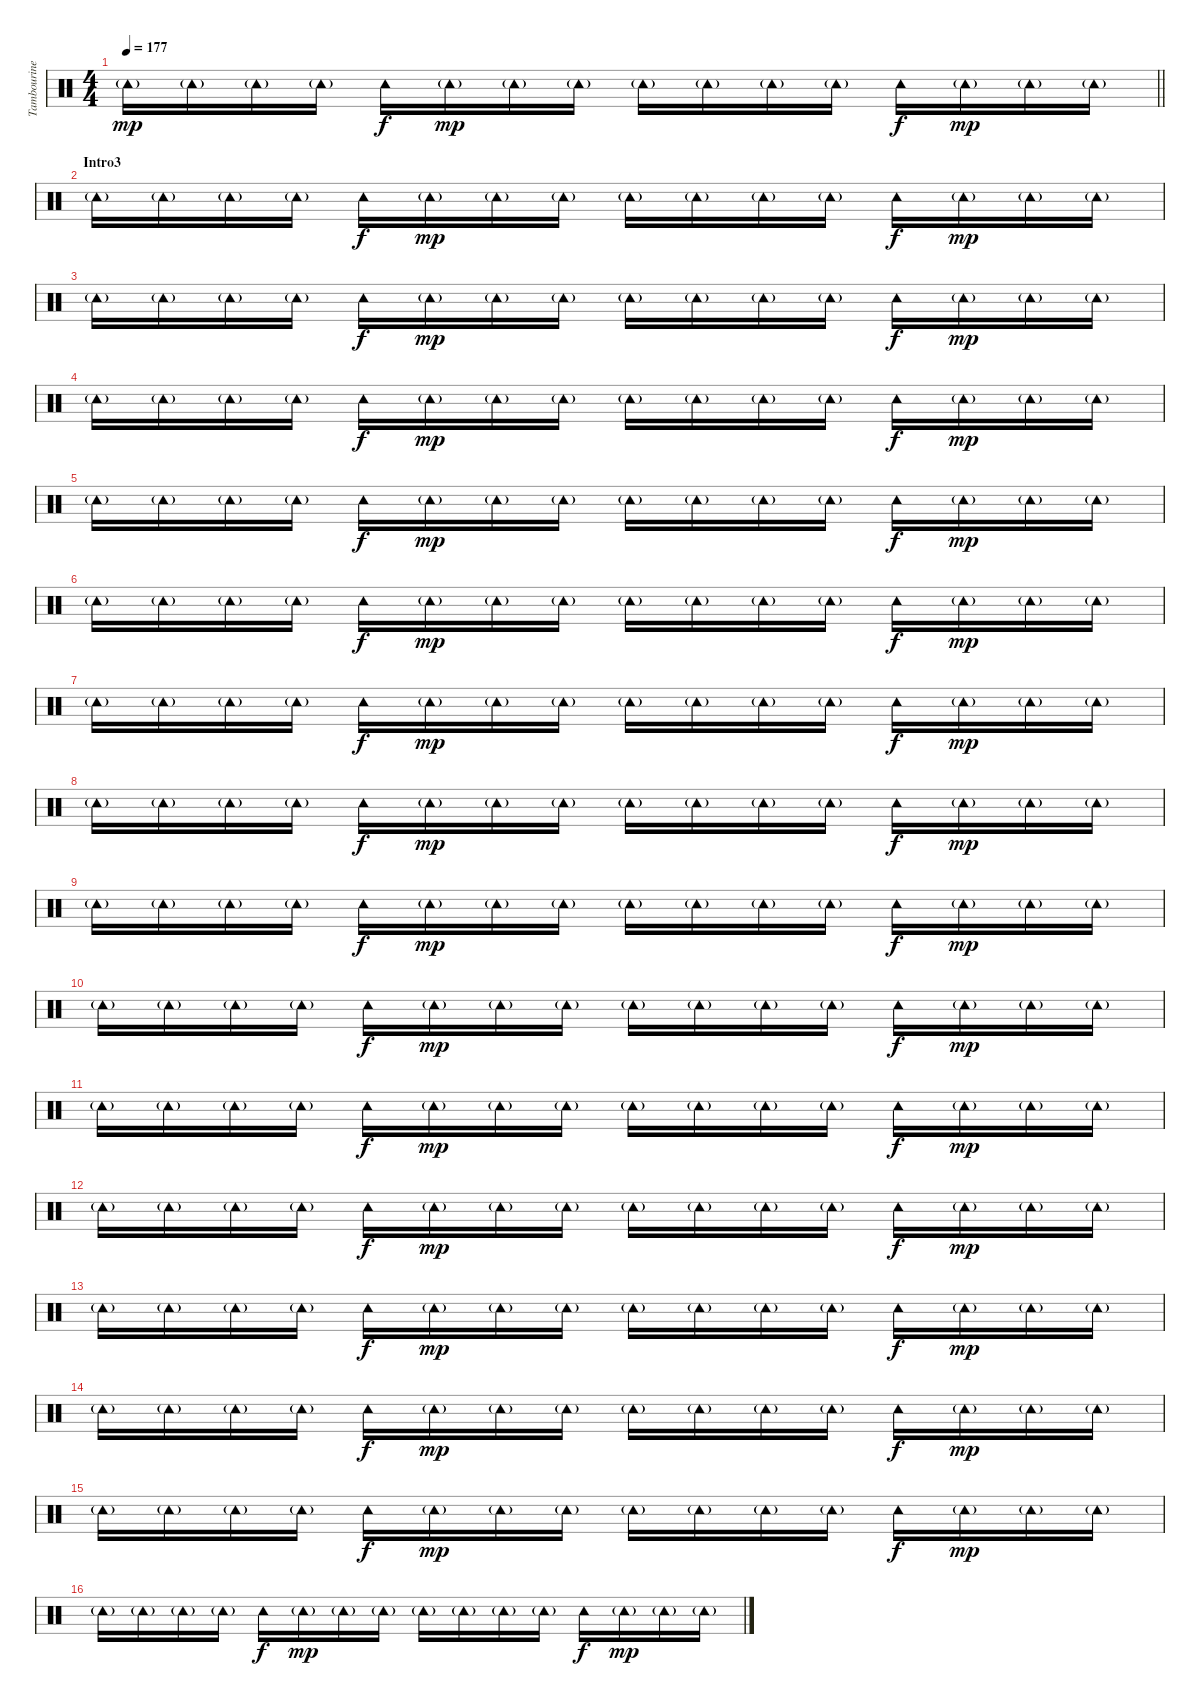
\track ("Tambourine" "Tambourine") {instrument percussion}
\staff {score}
\articulation defaults
\ts (4 4)
\tempo 177
\clef neutral
\barLineRight lightlight
\ks c "Tambourine (hit)"{g}.16{dy mp} "Tambourine (hit)"{g}.16 "Tambourine (hit)"{g}.16 "Tambourine (hit)"{g}.16 "Tambourine (hit)".16{dy f} "Tambourine (hit)"{g}.16{dy mp} "Tambourine (hit)"{g}.16 "Tambourine (hit)"{g}.16 "Tambourine (hit)"{g}.16 "Tambourine (hit)"{g}.16 "Tambourine (hit)"{g}.16 "Tambourine (hit)"{g}.16 "Tambourine (hit)".16{dy f} "Tambourine (hit)"{g}.16{dy mp} "Tambourine (hit)"{g}.16 "Tambourine (hit)"{g}.16
|
\section ("" "Intro3")
"Tambourine (hit)"{g}.16 "Tambourine (hit)"{g}.16 "Tambourine (hit)"{g}.16 "Tambourine (hit)"{g}.16 "Tambourine (hit)".16{dy f} "Tambourine (hit)"{g}.16{dy mp} "Tambourine (hit)"{g}.16 "Tambourine (hit)"{g}.16 "Tambourine (hit)"{g}.16 "Tambourine (hit)"{g}.16 "Tambourine (hit)"{g}.16 "Tambourine (hit)"{g}.16 "Tambourine (hit)".16{dy f} "Tambourine (hit)"{g}.16{dy mp} "Tambourine (hit)"{g}.16 "Tambourine (hit)"{g}.16 |
"Tambourine (hit)"{g}.16 "Tambourine (hit)"{g}.16 "Tambourine (hit)"{g}.16 "Tambourine (hit)"{g}.16 "Tambourine (hit)".16{dy f} "Tambourine (hit)"{g}.16{dy mp} "Tambourine (hit)"{g}.16 "Tambourine (hit)"{g}.16 "Tambourine (hit)"{g}.16 "Tambourine (hit)"{g}.16 "Tambourine (hit)"{g}.16 "Tambourine (hit)"{g}.16 "Tambourine (hit)".16{dy f} "Tambourine (hit)"{g}.16{dy mp} "Tambourine (hit)"{g}.16 "Tambourine (hit)"{g}.16 |
"Tambourine (hit)"{g}.16 "Tambourine (hit)"{g}.16 "Tambourine (hit)"{g}.16 "Tambourine (hit)"{g}.16 "Tambourine (hit)".16{dy f} "Tambourine (hit)"{g}.16{dy mp} "Tambourine (hit)"{g}.16 "Tambourine (hit)"{g}.16 "Tambourine (hit)"{g}.16 "Tambourine (hit)"{g}.16 "Tambourine (hit)"{g}.16 "Tambourine (hit)"{g}.16 "Tambourine (hit)".16{dy f} "Tambourine (hit)"{g}.16{dy mp} "Tambourine (hit)"{g}.16 "Tambourine (hit)"{g}.16 |
"Tambourine (hit)"{g}.16 "Tambourine (hit)"{g}.16 "Tambourine (hit)"{g}.16 "Tambourine (hit)"{g}.16 "Tambourine (hit)".16{dy f} "Tambourine (hit)"{g}.16{dy mp} "Tambourine (hit)"{g}.16 "Tambourine (hit)"{g}.16 "Tambourine (hit)"{g}.16 "Tambourine (hit)"{g}.16 "Tambourine (hit)"{g}.16 "Tambourine (hit)"{g}.16 "Tambourine (hit)".16{dy f} "Tambourine (hit)"{g}.16{dy mp} "Tambourine (hit)"{g}.16 "Tambourine (hit)"{g}.16 |
"Tambourine (hit)"{g}.16 "Tambourine (hit)"{g}.16 "Tambourine (hit)"{g}.16 "Tambourine (hit)"{g}.16 "Tambourine (hit)".16{dy f} "Tambourine (hit)"{g}.16{dy mp} "Tambourine (hit)"{g}.16 "Tambourine (hit)"{g}.16 "Tambourine (hit)"{g}.16 "Tambourine (hit)"{g}.16 "Tambourine (hit)"{g}.16 "Tambourine (hit)"{g}.16 "Tambourine (hit)".16{dy f} "Tambourine (hit)"{g}.16{dy mp} "Tambourine (hit)"{g}.16 "Tambourine (hit)"{g}.16 |
"Tambourine (hit)"{g}.16 "Tambourine (hit)"{g}.16 "Tambourine (hit)"{g}.16 "Tambourine (hit)"{g}.16 "Tambourine (hit)".16{dy f} "Tambourine (hit)"{g}.16{dy mp} "Tambourine (hit)"{g}.16 "Tambourine (hit)"{g}.16 "Tambourine (hit)"{g}.16 "Tambourine (hit)"{g}.16 "Tambourine (hit)"{g}.16 "Tambourine (hit)"{g}.16 "Tambourine (hit)".16{dy f} "Tambourine (hit)"{g}.16{dy mp} "Tambourine (hit)"{g}.16 "Tambourine (hit)"{g}.16 |
"Tambourine (hit)"{g}.16 "Tambourine (hit)"{g}.16 "Tambourine (hit)"{g}.16 "Tambourine (hit)"{g}.16 "Tambourine (hit)".16{dy f} "Tambourine (hit)"{g}.16{dy mp} "Tambourine (hit)"{g}.16 "Tambourine (hit)"{g}.16 "Tambourine (hit)"{g}.16 "Tambourine (hit)"{g}.16 "Tambourine (hit)"{g}.16 "Tambourine (hit)"{g}.16 "Tambourine (hit)".16{dy f} "Tambourine (hit)"{g}.16{dy mp} "Tambourine (hit)"{g}.16 "Tambourine (hit)"{g}.16 |
"Tambourine (hit)"{g}.16 "Tambourine (hit)"{g}.16 "Tambourine (hit)"{g}.16 "Tambourine (hit)"{g}.16 "Tambourine (hit)".16{dy f} "Tambourine (hit)"{g}.16{dy mp} "Tambourine (hit)"{g}.16 "Tambourine (hit)"{g}.16 "Tambourine (hit)"{g}.16 "Tambourine (hit)"{g}.16 "Tambourine (hit)"{g}.16 "Tambourine (hit)"{g}.16 "Tambourine (hit)".16{dy f} "Tambourine (hit)"{g}.16{dy mp} "Tambourine (hit)"{g}.16 "Tambourine (hit)"{g}.16 |
"Tambourine (hit)"{g}.16 "Tambourine (hit)"{g}.16 "Tambourine (hit)"{g}.16 "Tambourine (hit)"{g}.16 "Tambourine (hit)".16{dy f} "Tambourine (hit)"{g}.16{dy mp} "Tambourine (hit)"{g}.16 "Tambourine (hit)"{g}.16 "Tambourine (hit)"{g}.16 "Tambourine (hit)"{g}.16 "Tambourine (hit)"{g}.16 "Tambourine (hit)"{g}.16 "Tambourine (hit)".16{dy f} "Tambourine (hit)"{g}.16{dy mp} "Tambourine (hit)"{g}.16 "Tambourine (hit)"{g}.16 |
"Tambourine (hit)"{g}.16 "Tambourine (hit)"{g}.16 "Tambourine (hit)"{g}.16 "Tambourine (hit)"{g}.16 "Tambourine (hit)".16{dy f} "Tambourine (hit)"{g}.16{dy mp} "Tambourine (hit)"{g}.16 "Tambourine (hit)"{g}.16 "Tambourine (hit)"{g}.16 "Tambourine (hit)"{g}.16 "Tambourine (hit)"{g}.16 "Tambourine (hit)"{g}.16 "Tambourine (hit)".16{dy f} "Tambourine (hit)"{g}.16{dy mp} "Tambourine (hit)"{g}.16 "Tambourine (hit)"{g}.16 |
"Tambourine (hit)"{g}.16 "Tambourine (hit)"{g}.16 "Tambourine (hit)"{g}.16 "Tambourine (hit)"{g}.16 "Tambourine (hit)".16{dy f} "Tambourine (hit)"{g}.16{dy mp} "Tambourine (hit)"{g}.16 "Tambourine (hit)"{g}.16 "Tambourine (hit)"{g}.16 "Tambourine (hit)"{g}.16 "Tambourine (hit)"{g}.16 "Tambourine (hit)"{g}.16 "Tambourine (hit)".16{dy f} "Tambourine (hit)"{g}.16{dy mp} "Tambourine (hit)"{g}.16 "Tambourine (hit)"{g}.16 |
"Tambourine (hit)"{g}.16 "Tambourine (hit)"{g}.16 "Tambourine (hit)"{g}.16 "Tambourine (hit)"{g}.16 "Tambourine (hit)".16{dy f} "Tambourine (hit)"{g}.16{dy mp} "Tambourine (hit)"{g}.16 "Tambourine (hit)"{g}.16 "Tambourine (hit)"{g}.16 "Tambourine (hit)"{g}.16 "Tambourine (hit)"{g}.16 "Tambourine (hit)"{g}.16 "Tambourine (hit)".16{dy f} "Tambourine (hit)"{g}.16{dy mp} "Tambourine (hit)"{g}.16 "Tambourine (hit)"{g}.16 |
"Tambourine (hit)"{g}.16 "Tambourine (hit)"{g}.16 "Tambourine (hit)"{g}.16 "Tambourine (hit)"{g}.16 "Tambourine (hit)".16{dy f} "Tambourine (hit)"{g}.16{dy mp} "Tambourine (hit)"{g}.16 "Tambourine (hit)"{g}.16 "Tambourine (hit)"{g}.16 "Tambourine (hit)"{g}.16 "Tambourine (hit)"{g}.16 "Tambourine (hit)"{g}.16 "Tambourine (hit)".16{dy f} "Tambourine (hit)"{g}.16{dy mp} "Tambourine (hit)"{g}.16 "Tambourine (hit)"{g}.16 |
"Tambourine (hit)"{g}.16 "Tambourine (hit)"{g}.16 "Tambourine (hit)"{g}.16 "Tambourine (hit)"{g}.16 "Tambourine (hit)".16{dy f} "Tambourine (hit)"{g}.16{dy mp} "Tambourine (hit)"{g}.16 "Tambourine (hit)"{g}.16 "Tambourine (hit)"{g}.16 "Tambourine (hit)"{g}.16 "Tambourine (hit)"{g}.16 "Tambourine (hit)"{g}.16 "Tambourine (hit)".16{dy f} "Tambourine (hit)"{g}.16{dy mp} "Tambourine (hit)"{g}.16 "Tambourine (hit)"{g}.16 |
"Tambourine (hit)"{g}.16 "Tambourine (hit)"{g}.16 "Tambourine (hit)"{g}.16 "Tambourine (hit)"{g}.16 "Tambourine (hit)".16{dy f} "Tambourine (hit)"{g}.16{dy mp} "Tambourine (hit)"{g}.16 "Tambourine (hit)"{g}.16 "Tambourine (hit)"{g}.16 "Tambourine (hit)"{g}.16 "Tambourine (hit)"{g}.16 "Tambourine (hit)"{g}.16 "Tambourine (hit)".16{dy f} "Tambourine (hit)"{g}.16{dy mp} "Tambourine (hit)"{g}.16 "Tambourine (hit)"{g}.16
